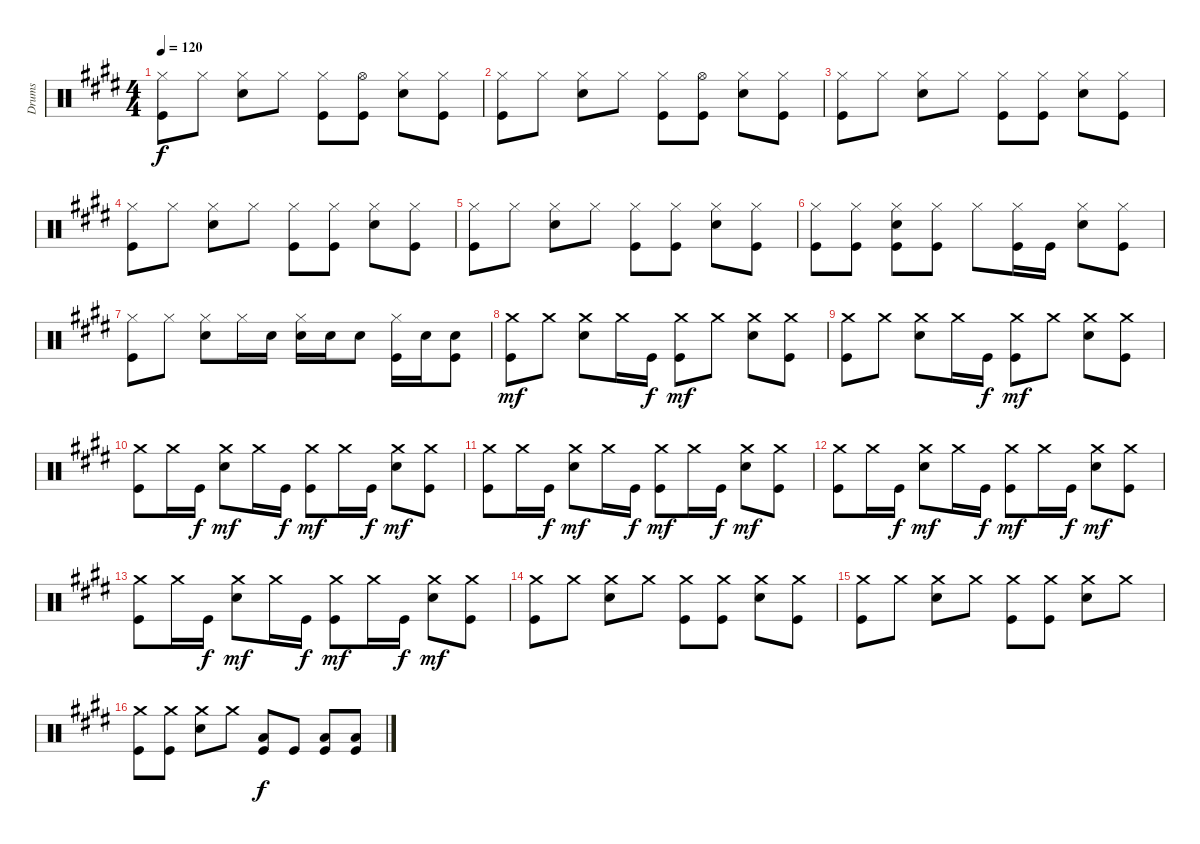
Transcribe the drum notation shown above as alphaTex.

\track ("Drums" "Drums") {instrument percussion}
\staff {score}
\articulation defaults
\ts (4 4)
\tempo 120
\clef neutral
\ks e
("Hi-Hat (closed)" "Kick (hit)").8{dy f} "Hi-Hat (closed)".8 ("Hi-Hat (closed)" "Snare (hit) 2").8 "Hi-Hat (closed)".8 ("Hi-Hat (closed)" "Kick (hit)").8 ("Hi-Hat (open)" "Kick (hit)").8 ("Hi-Hat (closed)" "Snare (hit) 2").8 ("Hi-Hat (closed)" "Kick (hit)").8 |
("Hi-Hat (closed)" "Kick (hit)").8 "Hi-Hat (closed)".8 ("Hi-Hat (closed)" "Snare (hit) 2").8 "Hi-Hat (closed)".8 ("Hi-Hat (closed)" "Kick (hit)").8 ("Hi-Hat (open)" "Kick (hit)").8 ("Hi-Hat (closed)" "Snare (hit) 2").8 ("Hi-Hat (closed)" "Kick (hit)").8 |
("Hi-Hat (closed)" "Kick (hit)").8 "Hi-Hat (closed)".8 ("Hi-Hat (closed)" "Snare (hit) 2").8 "Hi-Hat (closed)".8 ("Hi-Hat (closed)" "Kick (hit)").8 ("Hi-Hat (closed)" "Kick (hit)").8 ("Hi-Hat (closed)" "Snare (hit) 2").8 ("Hi-Hat (closed)" "Kick (hit)").8 |
("Hi-Hat (closed)" "Kick (hit)").8 "Hi-Hat (closed)".8 ("Hi-Hat (closed)" "Snare (hit) 2").8 "Hi-Hat (closed)".8 ("Hi-Hat (closed)" "Kick (hit)").8 ("Hi-Hat (closed)" "Kick (hit)").8 ("Hi-Hat (closed)" "Snare (hit) 2").8 ("Hi-Hat (closed)" "Kick (hit)").8 |
("Hi-Hat (closed)" "Kick (hit)").8 "Hi-Hat (closed)".8 ("Hi-Hat (closed)" "Snare (hit) 2").8 "Hi-Hat (closed)".8 ("Hi-Hat (closed)" "Kick (hit)").8 ("Hi-Hat (closed)" "Kick (hit)").8 ("Hi-Hat (closed)" "Snare (hit) 2").8 ("Hi-Hat (closed)" "Kick (hit)").8 |
("Hi-Hat (closed)" "Kick (hit)").8 ("Hi-Hat (closed)" "Kick (hit)").8 ("Hi-Hat (closed)" "Snare (hit) 2" "Kick (hit)").8 ("Hi-Hat (closed)" "Kick (hit)").8 "Hi-Hat (closed)".8 ("Hi-Hat (closed)" "Kick (hit)").16 "Kick (hit)".16 ("Hi-Hat (closed)" "Snare (hit) 2").8 ("Hi-Hat (closed)" "Kick (hit)").8 |
("Hi-Hat (closed)" "Kick (hit)").8 "Hi-Hat (closed)".8 ("Hi-Hat (closed)" "Snare (hit) 2").8 "Hi-Hat (closed)".16 "Snare (hit) 2".16 ("Hi-Hat (closed)" "Snare (hit) 2").16 "Snare (hit) 2".16 "Snare (hit) 2".8 ("Hi-Hat (closed)" "Kick (hit)").16 "Snare (hit) 2".16 ("Snare (hit) 2" "Kick (hit)").8 |
("Crash medium (hit)" "Kick (hit)").8{dy mf} "Crash medium (hit)".8 ("Crash medium (hit)" "Snare (hit) 2").8 "Crash medium (hit)".16 "Kick (hit)".16{dy f} ("Crash medium (hit)" "Kick (hit)").8{dy mf} "Crash medium (hit)".8 ("Crash medium (hit)" "Snare (hit) 2").8 ("Crash medium (hit)" "Kick (hit)").8 |
("Crash medium (hit)" "Kick (hit)").8 "Crash medium (hit)".8 ("Crash medium (hit)" "Snare (hit) 2").8 "Crash medium (hit)".16 "Kick (hit)".16{dy f} ("Crash medium (hit)" "Kick (hit)").8{dy mf} "Crash medium (hit)".8 ("Crash medium (hit)" "Snare (hit) 2").8 ("Crash medium (hit)" "Kick (hit)").8 |
("Crash medium (hit)" "Kick (hit)").8 "Crash medium (hit)".16 "Kick (hit)".16{dy f} ("Crash medium (hit)" "Snare (hit) 2").8{dy mf} "Crash medium (hit)".16 "Kick (hit)".16{dy f} ("Crash medium (hit)" "Kick (hit)").8{dy mf} "Crash medium (hit)".16 "Kick (hit)".16{dy f} ("Crash medium (hit)" "Snare (hit) 2").8{dy mf} ("Crash medium (hit)" "Kick (hit)").8 |
("Crash medium (hit)" "Kick (hit)").8 "Crash medium (hit)".16 "Kick (hit)".16{dy f} ("Crash medium (hit)" "Snare (hit) 2").8{dy mf} "Crash medium (hit)".16 "Kick (hit)".16{dy f} ("Crash medium (hit)" "Kick (hit)").8{dy mf} "Crash medium (hit)".16 "Kick (hit)".16{dy f} ("Crash medium (hit)" "Snare (hit) 2").8{dy mf} ("Crash medium (hit)" "Kick (hit)").8 |
("Crash medium (hit)" "Kick (hit)").8 "Crash medium (hit)".16 "Kick (hit)".16{dy f} ("Crash medium (hit)" "Snare (hit) 2").8{dy mf} "Crash medium (hit)".16 "Kick (hit)".16{dy f} ("Crash medium (hit)" "Kick (hit)").8{dy mf} "Crash medium (hit)".16 "Kick (hit)".16{dy f} ("Crash medium (hit)" "Snare (hit) 2").8{dy mf} ("Crash medium (hit)" "Kick (hit)").8 |
("Crash medium (hit)" "Kick (hit)").8 "Crash medium (hit)".16 "Kick (hit)".16{dy f} ("Crash medium (hit)" "Snare (hit) 2").8{dy mf} "Crash medium (hit)".16 "Kick (hit)".16{dy f} ("Crash medium (hit)" "Kick (hit)").8{dy mf} "Crash medium (hit)".16 "Kick (hit)".16{dy f} ("Crash medium (hit)" "Snare (hit) 2").8{dy mf} ("Crash medium (hit)" "Kick (hit)").8 |
("Crash medium (hit)" "Kick (hit)").8 "Crash medium (hit)".8 ("Crash medium (hit)" "Snare (hit) 2").8 "Crash medium (hit)".8 ("Crash medium (hit)" "Kick (hit)").8 ("Crash medium (hit)" "Kick (hit)").8 ("Crash medium (hit)" "Snare (hit) 2").8 ("Crash medium (hit)" "Kick (hit)").8 |
("Crash medium (hit)" "Kick (hit)").8 "Crash medium (hit)".8 ("Crash medium (hit)" "Snare (hit) 2").8 "Crash medium (hit)".8 ("Crash medium (hit)" "Kick (hit)").8 ("Crash medium (hit)" "Kick (hit)").8 ("Crash medium (hit)" "Snare (hit) 2").8 "Crash medium (hit)".8 |
("Crash medium (hit)" "Kick (hit)").8 ("Crash medium (hit)" "Kick (hit)").8 ("Crash medium (hit)" "Snare (hit) 2").8 "Crash medium (hit)".8 ("Low Tom (hit)" "Kick (hit)").8{dy f} "Kick (hit)".8 ("Low Tom (hit)" "Kick (hit)").8 ("Low Tom (hit)" "Kick (hit)").8
